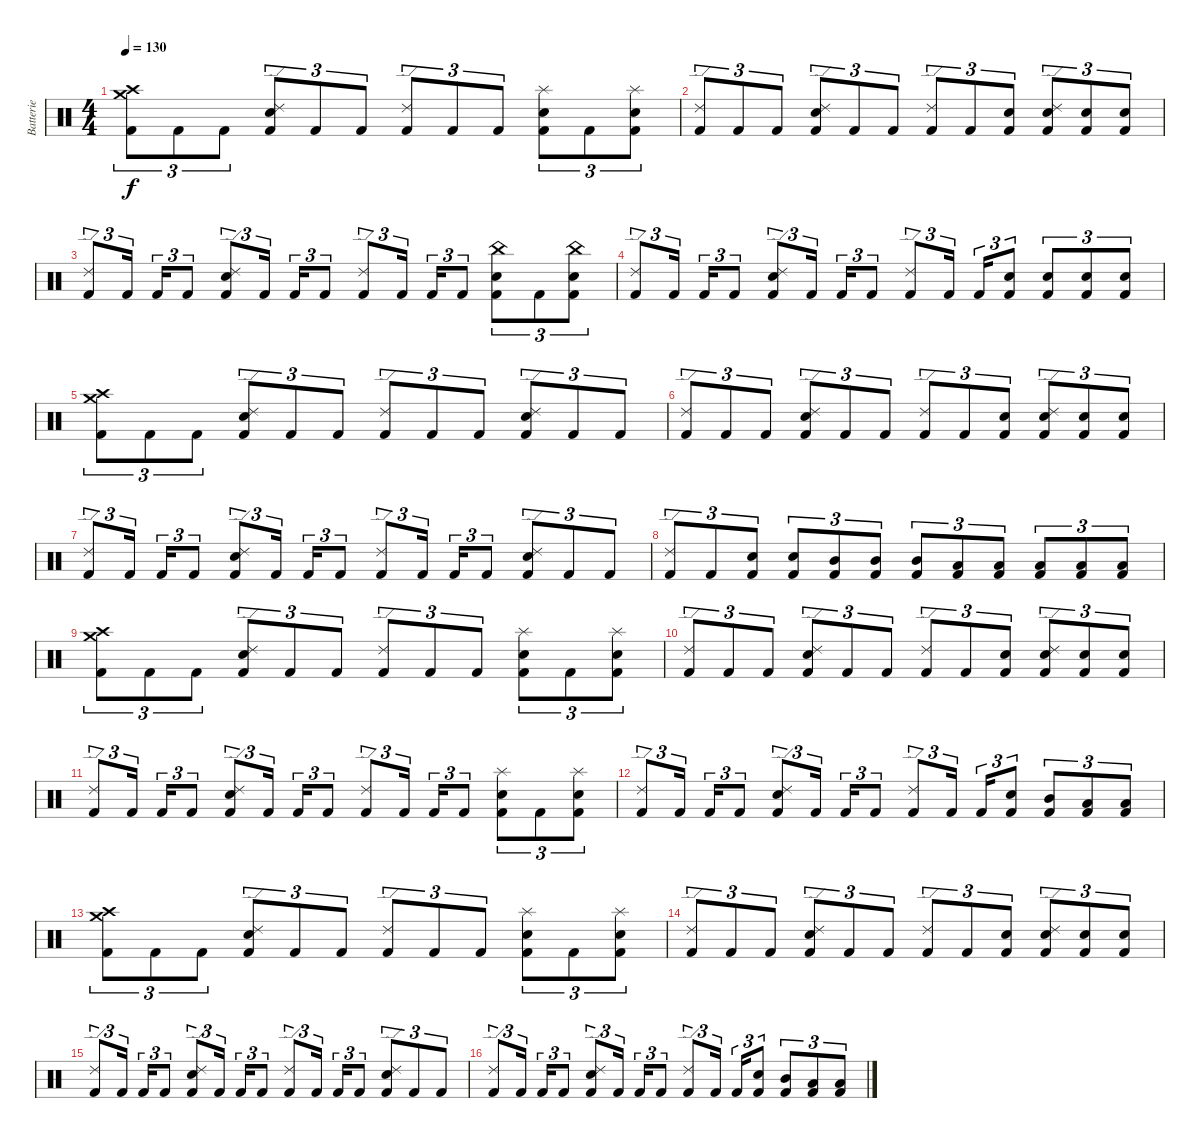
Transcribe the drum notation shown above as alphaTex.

\track ("Batterie" "Batterie") {instrument percussion}
\staff {score}
\articulation defaults
\ts (4 4)
\tempo 130
\clef neutral
\ks c
("Crash medium (hit)" "Crash high (hit)" "Kick (hit) 2").8{tu (3 2) dy f} "Kick (hit) 2".8{tu (3 2)} "Kick (hit) 2".8{tu (3 2)} ("Ride (edge) 2" "Electric Snare (hit)" "Kick (hit) 2").8{tu (3 2)} "Kick (hit) 2".8{tu (3 2)} "Kick (hit) 2".8{tu (3 2)} ("Ride (edge) 2" "Kick (hit) 2").8{tu (3 2)} "Kick (hit) 2".8{tu (3 2)} "Kick (hit) 2".8{tu (3 2)} ("Splash (hit)" "Electric Snare (hit)" "Kick (hit) 2").8{tu (3 2)} "Kick (hit) 2".8{tu (3 2)} ("Splash (hit)" "Electric Snare (hit)" "Kick (hit) 2").8{tu (3 2)} |
("Ride (edge) 2" "Kick (hit) 2").8{tu (3 2)} "Kick (hit) 2".8{tu (3 2)} "Kick (hit) 2".8{tu (3 2)} ("Ride (edge) 2" "Electric Snare (hit)" "Kick (hit) 2").8{tu (3 2)} "Kick (hit) 2".8{tu (3 2)} "Kick (hit) 2".8{tu (3 2)} ("Ride (edge) 2" "Kick (hit) 2").8{tu (3 2)} "Kick (hit) 2".8{tu (3 2)} ("Electric Snare (hit)" "Kick (hit) 2").8{tu (3 2)} ("Ride (edge) 2" "Electric Snare (hit)" "Kick (hit) 2").8{tu (3 2)} ("Electric Snare (hit)" "Kick (hit) 2").8{tu (3 2)} ("Electric Snare (hit)" "Kick (hit) 2").8{tu (3 2)} |
("Ride (edge) 2" "Kick (hit) 2").8{tu (3 2)} "Kick (hit) 2".16{tu (3 2)} "Kick (hit) 2".16{tu (3 2)} "Kick (hit) 2".8{tu (3 2)} ("Ride (edge) 2" "Electric Snare (hit)" "Kick (hit) 2").8{tu (3 2)} "Kick (hit) 2".16{tu (3 2)} "Kick (hit) 2".16{tu (3 2)} "Kick (hit) 2".8{tu (3 2)} ("Ride (edge) 2" "Kick (hit) 2").8{tu (3 2)} "Kick (hit) 2".16{tu (3 2)} "Kick (hit) 2".16{tu (3 2)} "Kick (hit) 2".8{tu (3 2)} ("China (hit)" "Electric Snare (hit)" "Kick (hit) 2").8{tu (3 2)} "Kick (hit) 2".8{tu (3 2)} ("China (hit)" "Electric Snare (hit)" "Kick (hit) 2").8{tu (3 2)} |
("Ride (edge) 2" "Kick (hit) 2").8{tu (3 2)} "Kick (hit) 2".16{tu (3 2)} "Kick (hit) 2".16{tu (3 2)} "Kick (hit) 2".8{tu (3 2)} ("Ride (edge) 2" "Electric Snare (hit)" "Kick (hit) 2").8{tu (3 2)} "Kick (hit) 2".16{tu (3 2)} "Kick (hit) 2".16{tu (3 2)} "Kick (hit) 2".8{tu (3 2)} ("Ride (edge) 2" "Kick (hit) 2").8{tu (3 2)} "Kick (hit) 2".16{tu (3 2)} "Kick (hit) 2".16{tu (3 2)} ("Electric Snare (hit)" "Kick (hit) 2").8{tu (3 2)} ("Electric Snare (hit)" "Kick (hit) 2").8{tu (3 2)} ("Electric Snare (hit)" "Kick (hit) 2").8{tu (3 2)} ("Electric Snare (hit)" "Kick (hit) 2").8{tu (3 2)} |
("Crash medium (hit)" "Crash high (hit)" "Kick (hit) 2").8{tu (3 2)} "Kick (hit) 2".8{tu (3 2)} "Kick (hit) 2".8{tu (3 2)} ("Ride (edge) 2" "Electric Snare (hit)" "Kick (hit) 2").8{tu (3 2)} "Kick (hit) 2".8{tu (3 2)} "Kick (hit) 2".8{tu (3 2)} ("Ride (edge) 2" "Kick (hit) 2").8{tu (3 2)} "Kick (hit) 2".8{tu (3 2)} "Kick (hit) 2".8{tu (3 2)} ("Ride (edge) 2" "Electric Snare (hit)" "Kick (hit) 2").8{tu (3 2)} "Kick (hit) 2".8{tu (3 2)} "Kick (hit) 2".8{tu (3 2)} |
("Ride (edge) 2" "Kick (hit) 2").8{tu (3 2) volume 13} "Kick (hit) 2".8{tu (3 2)} "Kick (hit) 2".8{tu (3 2)} ("Ride (edge) 2" "Electric Snare (hit)" "Kick (hit) 2").8{tu (3 2)} "Kick (hit) 2".8{tu (3 2)} "Kick (hit) 2".8{tu (3 2)} ("Ride (edge) 2" "Kick (hit) 2").8{tu (3 2)} "Kick (hit) 2".8{tu (3 2)} ("Electric Snare (hit)" "Kick (hit) 2").8{tu (3 2)} ("Ride (edge) 2" "Electric Snare (hit)" "Kick (hit) 2").8{tu (3 2)} ("Electric Snare (hit)" "Kick (hit) 2").8{tu (3 2)} ("Electric Snare (hit)" "Kick (hit) 2").8{tu (3 2)} |
("Ride (edge) 2" "Kick (hit) 2").8{tu (3 2) volume 12} "Kick (hit) 2".16{tu (3 2)} "Kick (hit) 2".16{tu (3 2)} "Kick (hit) 2".8{tu (3 2)} ("Ride (edge) 2" "Electric Snare (hit)" "Kick (hit) 2").8{tu (3 2)} "Kick (hit) 2".16{tu (3 2)} "Kick (hit) 2".16{tu (3 2)} "Kick (hit) 2".8{tu (3 2)} ("Ride (edge) 2" "Kick (hit) 2").8{tu (3 2)} "Kick (hit) 2".16{tu (3 2)} "Kick (hit) 2".16{tu (3 2)} "Kick (hit) 2".8{tu (3 2)} ("Ride (edge) 2" "Electric Snare (hit)" "Kick (hit) 2").8{tu (3 2)} "Kick (hit) 2".8{tu (3 2)} "Kick (hit) 2".8{tu (3 2)} |
("Ride (edge) 2" "Kick (hit) 2").8{tu (3 2) volume 10} "Kick (hit) 2".8{tu (3 2)} ("Electric Snare (hit)" "Kick (hit) 2").8{tu (3 2)} ("Electric Snare (hit)" "Kick (hit) 2").8{tu (3 2)} ("Mid Tom (hit)" "Kick (hit) 2").8{tu (3 2)} ("Mid Tom (hit)" "Kick (hit) 2").8{tu (3 2)} ("Mid Tom (hit)" "Kick (hit) 2").8{tu (3 2)} ("Low Tom (hit)" "Kick (hit) 2").8{tu (3 2)} ("Low Tom (hit)" "Kick (hit) 2").8{tu (3 2)} ("Low Tom (hit)" "Kick (hit) 2").8{tu (3 2)} ("Low Floor Tom (hit)" "Kick (hit) 2").8{tu (3 2)} ("Low Floor Tom (hit)" "Kick (hit) 2").8{tu (3 2)} |
("Crash medium (hit)" "Crash high (hit)" "Kick (hit) 2").8{tu (3 2) volume 8} "Kick (hit) 2".8{tu (3 2)} "Kick (hit) 2".8{tu (3 2)} ("Ride (edge) 2" "Electric Snare (hit)" "Kick (hit) 2").8{tu (3 2)} "Kick (hit) 2".8{tu (3 2)} "Kick (hit) 2".8{tu (3 2)} ("Ride (edge) 2" "Kick (hit) 2").8{tu (3 2)} "Kick (hit) 2".8{tu (3 2)} "Kick (hit) 2".8{tu (3 2)} ("Splash (hit)" "Electric Snare (hit)" "Kick (hit) 2").8{tu (3 2)} "Kick (hit) 2".8{tu (3 2)} ("Splash (hit)" "Electric Snare (hit)" "Kick (hit) 2").8{tu (3 2)} |
("Ride (edge) 2" "Kick (hit) 2").8{tu (3 2) volume 6} "Kick (hit) 2".8{tu (3 2)} "Kick (hit) 2".8{tu (3 2)} ("Ride (edge) 2" "Electric Snare (hit)" "Kick (hit) 2").8{tu (3 2)} "Kick (hit) 2".8{tu (3 2)} "Kick (hit) 2".8{tu (3 2)} ("Ride (edge) 2" "Kick (hit) 2").8{tu (3 2)} "Kick (hit) 2".8{tu (3 2)} ("Electric Snare (hit)" "Kick (hit) 2").8{tu (3 2)} ("Ride (edge) 2" "Electric Snare (hit)" "Kick (hit) 2").8{tu (3 2)} ("Electric Snare (hit)" "Kick (hit) 2").8{tu (3 2)} ("Electric Snare (hit)" "Kick (hit) 2").8{tu (3 2)} |
("Ride (edge) 2" "Kick (hit) 2").8{tu (3 2) volume 4} "Kick (hit) 2".16{tu (3 2)} "Kick (hit) 2".16{tu (3 2)} "Kick (hit) 2".8{tu (3 2)} ("Ride (edge) 2" "Electric Snare (hit)" "Kick (hit) 2").8{tu (3 2)} "Kick (hit) 2".16{tu (3 2)} "Kick (hit) 2".16{tu (3 2)} "Kick (hit) 2".8{tu (3 2)} ("Ride (edge) 2" "Kick (hit) 2").8{tu (3 2)} "Kick (hit) 2".16{tu (3 2)} "Kick (hit) 2".16{tu (3 2)} "Kick (hit) 2".8{tu (3 2)} ("Splash (hit)" "Electric Snare (hit)" "Kick (hit) 2").8{tu (3 2)} "Kick (hit) 2".8{tu (3 2)} ("Splash (hit)" "Electric Snare (hit)" "Kick (hit) 2").8{tu (3 2)} |
("Ride (edge) 2" "Kick (hit) 2").8{tu (3 2) volume 2} "Kick (hit) 2".16{tu (3 2)} "Kick (hit) 2".16{tu (3 2)} "Kick (hit) 2".8{tu (3 2)} ("Ride (edge) 2" "Electric Snare (hit)" "Kick (hit) 2").8{tu (3 2)} "Kick (hit) 2".16{tu (3 2)} "Kick (hit) 2".16{tu (3 2)} "Kick (hit) 2".8{tu (3 2)} ("Ride (edge) 2" "Kick (hit) 2").8{tu (3 2)} "Kick (hit) 2".16{tu (3 2)} "Kick (hit) 2".16{tu (3 2)} ("Electric Snare (hit)" "Kick (hit) 2").8{tu (3 2)} ("Mid Tom (hit)" "Kick (hit) 2").8{tu (3 2)} ("Low Tom (hit)" "Kick (hit) 2").8{tu (3 2)} ("Low Floor Tom (hit)" "Kick (hit) 2").8{tu (3 2)} |
("Crash medium (hit)" "Crash high (hit)" "Kick (hit) 2").8{tu (3 2) volume 0} "Kick (hit) 2".8{tu (3 2)} "Kick (hit) 2".8{tu (3 2)} ("Ride (edge) 2" "Electric Snare (hit)" "Kick (hit) 2").8{tu (3 2)} "Kick (hit) 2".8{tu (3 2)} "Kick (hit) 2".8{tu (3 2)} ("Ride (edge) 2" "Kick (hit) 2").8{tu (3 2)} "Kick (hit) 2".8{tu (3 2)} "Kick (hit) 2".8{tu (3 2)} ("Splash (hit)" "Electric Snare (hit)" "Kick (hit) 2").8{tu (3 2)} "Kick (hit) 2".8{tu (3 2)} ("Splash (hit)" "Electric Snare (hit)" "Kick (hit) 2").8{tu (3 2)} |
("Ride (edge) 2" "Kick (hit) 2").8{tu (3 2)} "Kick (hit) 2".8{tu (3 2)} "Kick (hit) 2".8{tu (3 2)} ("Ride (edge) 2" "Electric Snare (hit)" "Kick (hit) 2").8{tu (3 2)} "Kick (hit) 2".8{tu (3 2)} "Kick (hit) 2".8{tu (3 2)} ("Ride (edge) 2" "Kick (hit) 2").8{tu (3 2)} "Kick (hit) 2".8{tu (3 2)} ("Electric Snare (hit)" "Kick (hit) 2").8{tu (3 2)} ("Ride (edge) 2" "Electric Snare (hit)" "Kick (hit) 2").8{tu (3 2)} ("Electric Snare (hit)" "Kick (hit) 2").8{tu (3 2)} ("Electric Snare (hit)" "Kick (hit) 2").8{tu (3 2)} |
("Ride (edge) 2" "Kick (hit) 2").8{tu (3 2)} "Kick (hit) 2".16{tu (3 2)} "Kick (hit) 2".16{tu (3 2)} "Kick (hit) 2".8{tu (3 2)} ("Ride (edge) 2" "Electric Snare (hit)" "Kick (hit) 2").8{tu (3 2)} "Kick (hit) 2".16{tu (3 2)} "Kick (hit) 2".16{tu (3 2)} "Kick (hit) 2".8{tu (3 2)} ("Ride (edge) 2" "Kick (hit) 2").8{tu (3 2)} "Kick (hit) 2".16{tu (3 2)} "Kick (hit) 2".16{tu (3 2)} "Kick (hit) 2".8{tu (3 2)} ("Ride (edge) 2" "Electric Snare (hit)" "Kick (hit) 2").8{tu (3 2)} "Kick (hit) 2".8{tu (3 2)} "Kick (hit) 2".8{tu (3 2)} |
("Ride (edge) 2" "Kick (hit) 2").8{tu (3 2)} "Kick (hit) 2".16{tu (3 2)} "Kick (hit) 2".16{tu (3 2)} "Kick (hit) 2".8{tu (3 2)} ("Ride (edge) 2" "Electric Snare (hit)" "Kick (hit) 2").8{tu (3 2)} "Kick (hit) 2".16{tu (3 2)} "Kick (hit) 2".16{tu (3 2)} "Kick (hit) 2".8{tu (3 2)} ("Ride (edge) 2" "Kick (hit) 2").8{tu (3 2)} "Kick (hit) 2".16{tu (3 2)} "Kick (hit) 2".16{tu (3 2)} ("Electric Snare (hit)" "Kick (hit) 2").8{tu (3 2)} ("Mid Tom (hit)" "Kick (hit) 2").8{tu (3 2)} ("Low Tom (hit)" "Kick (hit) 2").8{tu (3 2)} ("Low Floor Tom (hit)" "Kick (hit) 2").8{tu (3 2)}
